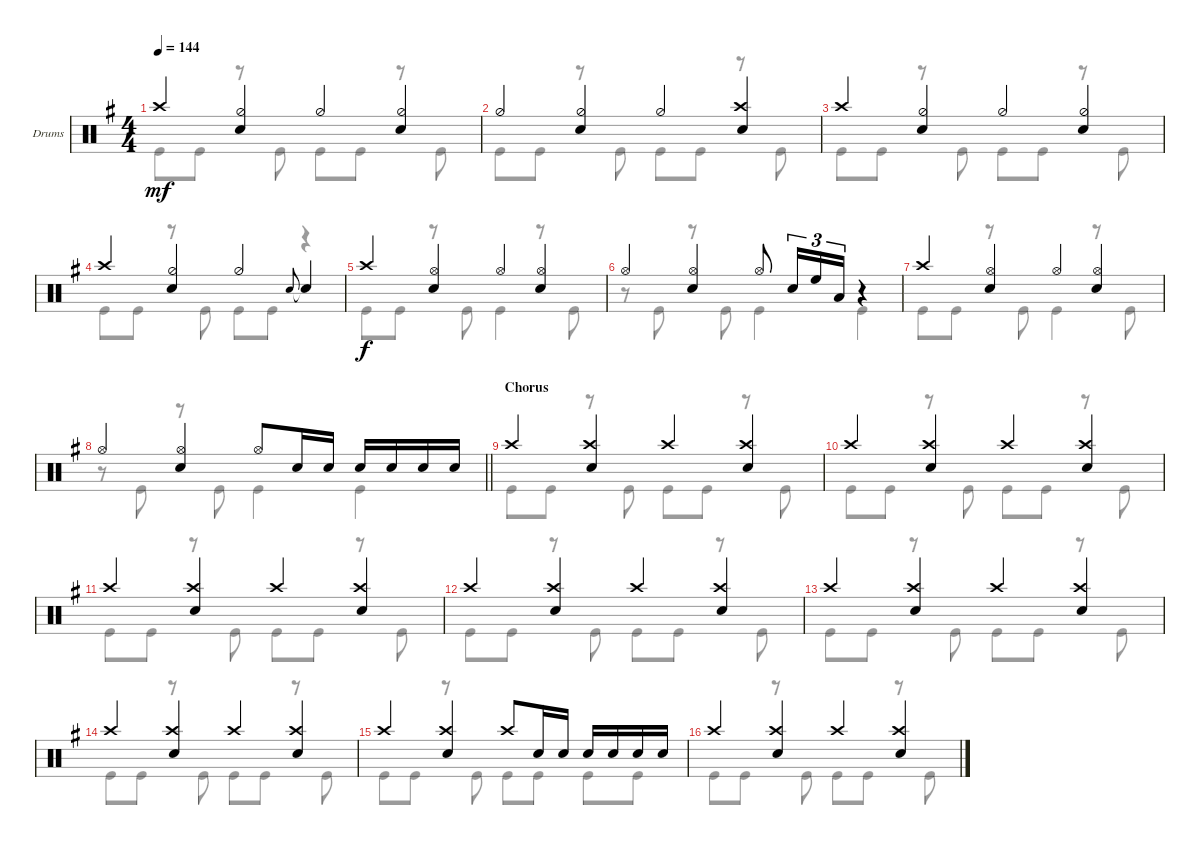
\bracketExtendMode groupsimilarinstruments
\firstSystemTrackNameOrientation horizontal
\otherSystemsTrackNameOrientation horizontal
\track ("Drumkit" "Drums") {instrument percussion}
\staff {score}
\articulation defaults
\voice
\ts (4 4)
\tempo 144
\clef neutral
\scale
0.333333
\ks g "Crash high (hit)".4{dy mf}
("Hi-Hat (half)" "Snare (hit) 2").4 "Hi-Hat (half)".4 ("Hi-Hat (half)" "Snare (hit) 2").4 |
\scale
0.333333 "Hi-Hat (half)".4 ("Hi-Hat (half)" "Snare (hit) 2").4 "Hi-Hat (half)".4 ("Crash high (hit)" "Snare (hit) 2").4 |
\scale
0.333333 "Crash high (hit)".4 ("Hi-Hat (half)" "Snare (hit) 2").4 "Hi-Hat (half)".4 ("Hi-Hat (half)" "Snare (hit) 2").4 |
\scale
0.333333 "Crash high (hit)".4 ("Hi-Hat (half)" "Snare (hit) 2").4 "Hi-Hat (half)".4 "Snare (hit) 2".8{gr onbeat} "Snare (hit) 2"{t}.4 |
\scale
0.333333 "Crash high (hit)".4{dy f} ("Hi-Hat (open)" "Snare (hit) 2").4 "Hi-Hat (open)".4 ("Hi-Hat (open)" "Snare (hit) 2").4 |
\scale
0.333333 "Hi-Hat (open)".4 ("Hi-Hat (open)" "Snare (hit) 2").4 "Hi-Hat (open)".8 "Snare (hit) 2".16{tu (3 2)} "High Floor Tom (hit)".16{tu (3 2)} "Low Tom (hit)".16{tu (3 2)} r.4 |
\scale
0.333333 "Crash high (hit)".4 ("Hi-Hat (open)" "Snare (hit) 2").4 "Hi-Hat (open)".4 ("Hi-Hat (open)" "Snare (hit) 2").4 |
\scale
0.333333
\barLineRight lightlight "Hi-Hat (open)".4
("Hi-Hat (open)" "Snare (hit) 2").4 "Hi-Hat (open)".8 "Snare (hit) 2".16 "Snare (hit) 2".16 "Snare (hit) 2".16 "Snare (hit) 2".16 "Snare (hit) 2".16 "Snare (hit) 2".16 |
\section ("" "Chorus")
\scale
0.333333 "Crash high (hit)".4 ("Crash high (hit)" "Snare (hit) 2").4 "Crash high (hit)".4 ("Crash high (hit)" "Snare (hit) 2").4 |
\scale
0.333333 "Crash high (hit)".4 ("Crash high (hit)" "Snare (hit) 2").4 "Crash high (hit)".4 ("Crash high (hit)" "Snare (hit) 2").4 |
\scale
0.333333 "Crash high (hit)".4 ("Crash high (hit)" "Snare (hit) 2").4 "Crash high (hit)".4 ("Crash high (hit)" "Snare (hit) 2").4 |
\scale
0.333333 "Crash high (hit)".4 ("Crash high (hit)" "Snare (hit) 2").4 "Crash high (hit)".4 ("Crash high (hit)" "Snare (hit) 2").4 |
\scale
0.333333 "Crash high (hit)".4 ("Crash high (hit)" "Snare (hit) 2").4 "Crash high (hit)".4 ("Crash high (hit)" "Snare (hit) 2").4 |
\scale
0.333333 "Crash high (hit)".4 ("Crash high (hit)" "Snare (hit) 2").4 "Crash high (hit)".4 ("Crash high (hit)" "Snare (hit) 2").4 |
\scale
0.333333 "Crash high (hit)".4 ("Crash high (hit)" "Snare (hit) 2").4 "Crash high (hit)".8 "Snare (hit) 2".16 "Snare (hit) 2".16 "Snare (hit) 2".16 "Snare (hit) 2".16 "Snare (hit) 2".16 "Snare (hit) 2".16 |
\scale
0.333333 "Crash high (hit)".4 ("Crash high (hit)" "Snare (hit) 2").4 "Crash high (hit)".4 ("Crash high (hit)" "Snare (hit) 2").4
\voice
\clef neutral
\ottava regular
\simile none
\scale
0.333333
\ks g "Kick (hit)".8{dy mf} "Kick (hit)".8
r.8 "Kick (hit)".8 "Kick (hit)".8 "Kick (hit)".8 r.8 "Kick (hit)".8 |
\scale
0.333333 "Kick (hit)".8 "Kick (hit)".8 r.8 "Kick (hit)".8 "Kick (hit)".8 "Kick (hit)".8 r.8 "Kick (hit)".8 |
\scale
0.333333 "Kick (hit)".8 "Kick (hit)".8 r.8 "Kick (hit)".8 "Kick (hit)".8 "Kick (hit)".8 r.8 "Kick (hit)".8 |
\scale
0.333333 "Kick (hit)".8 "Kick (hit)".8 r.8 "Kick (hit)".8 "Kick (hit)".8 "Kick (hit)".8 r.4 |
\scale
0.333333 "Kick (hit)".8{dy f} "Kick (hit)".8 r.8 "Kick (hit)".8 "Kick (hit)".4 r.8 "Kick (hit)".8 |
\scale
0.333333 r.8 "Kick (hit)".8 r.8 "Kick (hit)".8 "Kick (hit)".4 "Kick (hit)".4 |
\scale
0.333333 "Kick (hit)".8 "Kick (hit)".8 r.8 "Kick (hit)".8 "Kick (hit)".4 r.8 "Kick (hit)".8 |
\scale
0.333333
\barLineRight lightlight
r.8 "Kick (hit)".8 r.8 "Kick (hit)".8 "Kick (hit)".4 "Kick (hit)".4 |
\scale
0.333333 "Kick (hit)".8 "Kick (hit)".8 r.8 "Kick (hit)".8 "Kick (hit)".8 "Kick (hit)".8 r.8 "Kick (hit)".8 |
\scale
0.333333 "Kick (hit)".8 "Kick (hit)".8 r.8 "Kick (hit)".8 "Kick (hit)".8 "Kick (hit)".8 r.8 "Kick (hit)".8 |
\scale
0.333333 "Kick (hit)".8 "Kick (hit)".8 r.8 "Kick (hit)".8 "Kick (hit)".8 "Kick (hit)".8 r.8 "Kick (hit)".8 |
\scale
0.333333 "Kick (hit)".8 "Kick (hit)".8 r.8 "Kick (hit)".8 "Kick (hit)".8 "Kick (hit)".8 r.8 "Kick (hit)".8 |
\scale
0.333333 "Kick (hit)".8 "Kick (hit)".8 r.8 "Kick (hit)".8 "Kick (hit)".8 "Kick (hit)".8 r.8 "Kick (hit)".8 |
\scale
0.333333 "Kick (hit)".8 "Kick (hit)".8 r.8 "Kick (hit)".8 "Kick (hit)".8 "Kick (hit)".8 r.8 "Kick (hit)".8 |
\scale
0.333333 "Kick (hit)".8 "Kick (hit)".8 r.8 "Kick (hit)".8 "Kick (hit)".8 "Kick (hit)".8 "Kick (hit)".8 "Kick (hit)".8 |
\scale
0.333333 "Kick (hit)".8 "Kick (hit)".8 r.8 "Kick (hit)".8 "Kick (hit)".8 "Kick (hit)".8 r.8 "Kick (hit)".8
